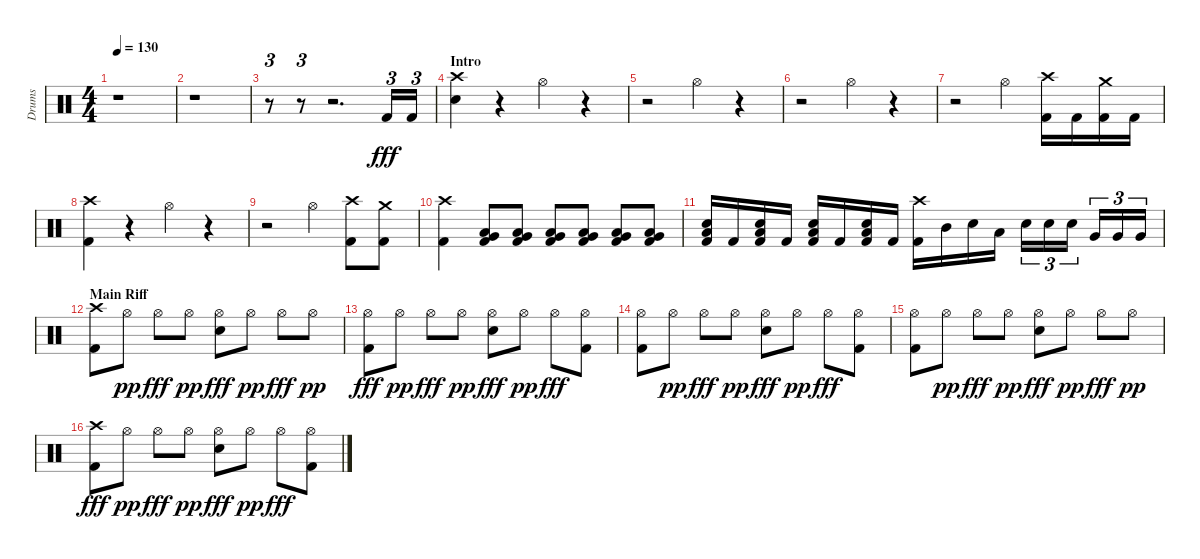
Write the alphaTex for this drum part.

\track ("Drums" "Drums") {instrument percussion}
\staff {score}
\articulation defaults
\ts (4 4)
\tempo 130
\clef neutral
\ks aminor
r.1{dy fff} |
r.1 |
r.8{tu (3 2)} r.8{tu (3 2)} r.2{d} "Kick (hit) 2".16{tu (3 2)} "Kick (hit) 2".16{tu (3 2)} |
\section ("" "Intro")
("Snare (hit) 2" "Crash high (hit)").4 r.4 "Hi-Hat (open)".4 r.4 |
r.2 "Hi-Hat (open)".4 r.4 |
r.2 "Hi-Hat (open)".4 r.4 |
r.2 "Hi-Hat (open)".4 ("Kick (hit) 2" "Crash high (hit)").16 "Kick (hit) 2".16 ("Kick (hit) 2" "Crash medium (hit)").16 "Kick (hit) 2".16 |
("Kick (hit) 2" "Crash high (hit)").4 r.4 "Hi-Hat (open)".4 r.4 |
r.2 "Hi-Hat (open)".4 ("Kick (hit) 2" "Crash high (hit)").8 ("Kick (hit) 2" "Crash medium (hit)").8 |
("Kick (hit) 2" "Crash high (hit)").4 ("Kick (hit) 2" "Low Floor Tom (hit)" "Very Low Tom (hit)").8 ("Kick (hit) 2" "Low Floor Tom (hit)" "Very Low Tom (hit)").8 ("Kick (hit) 2" "Low Floor Tom (hit)" "Very Low Tom (hit)").8 ("Kick (hit) 2" "Low Floor Tom (hit)" "Very Low Tom (hit)").8 ("Kick (hit) 2" "Low Floor Tom (hit)" "Very Low Tom (hit)").8 ("Kick (hit) 2" "Low Floor Tom (hit)" "Very Low Tom (hit)").8 |
("Kick (hit) 2" "Snare (hit) 2" "Low Floor Tom (hit)").16 "Kick (hit) 2".16 ("Kick (hit) 2" "Snare (hit) 2" "Low Floor Tom (hit)").16 "Kick (hit) 2".16 ("Kick (hit) 2" "Snare (hit) 2" "Low Floor Tom (hit)").16 "Kick (hit) 2".16 ("Kick (hit) 2" "Snare (hit) 2" "Low Floor Tom (hit)").16 "Kick (hit) 2".16 ("Kick (hit) 2" "Crash high (hit)").16 "Mid Tom (hit)".16 "Snare (hit) 2".16 "Low Tom (hit)".16 "Snare (hit) 2".16{tu (3 2)} "Snare (hit) 2".16{tu (3 2)} "Snare (hit) 2".16{tu (3 2)} "Very Low Tom (hit)".16{tu (3 2)} "Very Low Tom (hit)".16{tu (3 2)} "Very Low Tom (hit)".16{tu (3 2)} |
\section ("" "Main Riff")
("Kick (hit) 2" "Crash high (hit)").8 "Hi-Hat (open)".8{dy pp} "Hi-Hat (open)".8{dy fff} "Hi-Hat (open)".8{dy pp} ("Snare (hit) 2" "Hi-Hat (open)").8{dy fff} "Hi-Hat (open)".8{dy pp} "Hi-Hat (open)".8{dy fff} "Hi-Hat (open)".8{dy pp} |
("Kick (hit) 2" "Hi-Hat (open)").8{dy fff} "Hi-Hat (open)".8{dy pp} "Hi-Hat (open)".8{dy fff} "Hi-Hat (open)".8{dy pp} ("Snare (hit) 2" "Hi-Hat (open)").8{dy fff} "Hi-Hat (open)".8{dy pp} "Hi-Hat (open)".8{dy fff} ("Kick (hit) 2" "Hi-Hat (open)").8 |
("Kick (hit) 2" "Hi-Hat (open)").8 "Hi-Hat (open)".8{dy pp} "Hi-Hat (open)".8{dy fff} "Hi-Hat (open)".8{dy pp} ("Snare (hit) 2" "Hi-Hat (open)").8{dy fff} "Hi-Hat (open)".8{dy pp} "Hi-Hat (open)".8{dy fff} ("Kick (hit) 2" "Hi-Hat (open)").8 |
("Kick (hit) 2" "Hi-Hat (open)").8 "Hi-Hat (open)".8{dy pp} "Hi-Hat (open)".8{dy fff} "Hi-Hat (open)".8{dy pp} ("Snare (hit) 2" "Hi-Hat (open)").8{dy fff} "Hi-Hat (open)".8{dy pp} "Hi-Hat (open)".8{dy fff} "Hi-Hat (open)".8{dy pp} |
("Kick (hit) 2" "Crash high (hit)").8{dy fff} "Hi-Hat (open)".8{dy pp} "Hi-Hat (open)".8{dy fff} "Hi-Hat (open)".8{dy pp} ("Snare (hit) 2" "Hi-Hat (open)").8{dy fff} "Hi-Hat (open)".8{dy pp} "Hi-Hat (open)".8{dy fff} ("Kick (hit) 2" "Hi-Hat (open)").8
